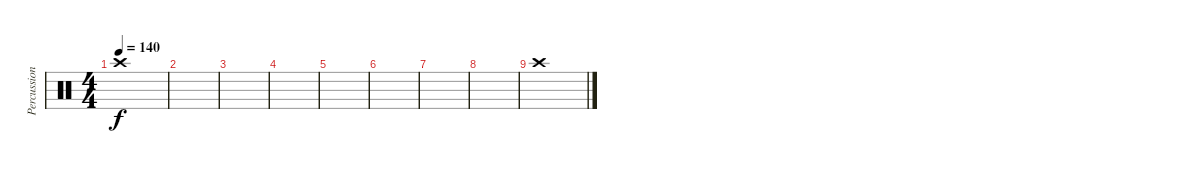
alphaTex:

\track ("Percussion" "Percussion") {instrument percussion}
\staff {score}
\articulation defaults
\ts (4 4)
\tempo 140
\clef neutral
\ks c "Crash high (hit)".1{dy f}
|
|
|
|
|
|
|
|
"Crash high (hit)".1
